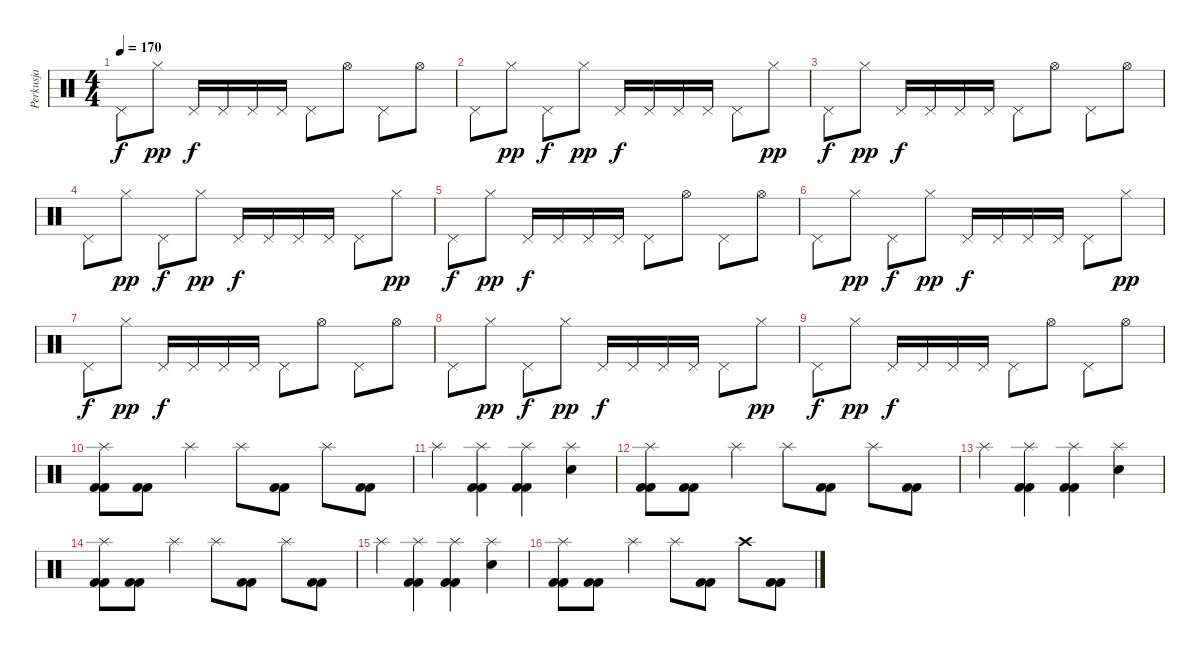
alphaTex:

\track ("Perkusja" "Perkusja") {instrument percussion}
\staff {score}
\articulation defaults
\ts (4 4)
\tempo 170
\clef neutral
\ks c "Pedal Hi-Hat (hit)".8{dy f} "Hi-Hat (closed)".8{dy pp} "Pedal Hi-Hat (hit)".16{dy f} "Pedal Hi-Hat (hit)".16 "Pedal Hi-Hat (hit)".16 "Pedal Hi-Hat (hit)".16 "Pedal Hi-Hat (hit)".8 "Hi-Hat (open)".8 "Pedal Hi-Hat (hit)".8 "Hi-Hat (open)".8
|
"Pedal Hi-Hat (hit)".8 "Hi-Hat (closed)".8{dy pp} "Pedal Hi-Hat (hit)".8{dy f} "Hi-Hat (closed)".8{dy pp} "Pedal Hi-Hat (hit)".16{dy f} "Pedal Hi-Hat (hit)".16 "Pedal Hi-Hat (hit)".16 "Pedal Hi-Hat (hit)".16 "Pedal Hi-Hat (hit)".8 "Hi-Hat (closed)".8{dy pp} |
"Pedal Hi-Hat (hit)".8{dy f} "Hi-Hat (closed)".8{dy pp} "Pedal Hi-Hat (hit)".16{dy f} "Pedal Hi-Hat (hit)".16 "Pedal Hi-Hat (hit)".16 "Pedal Hi-Hat (hit)".16 "Pedal Hi-Hat (hit)".8 "Hi-Hat (open)".8 "Pedal Hi-Hat (hit)".8 "Hi-Hat (open)".8 |
"Pedal Hi-Hat (hit)".8 "Hi-Hat (closed)".8{dy pp} "Pedal Hi-Hat (hit)".8{dy f} "Hi-Hat (closed)".8{dy pp} "Pedal Hi-Hat (hit)".16{dy f} "Pedal Hi-Hat (hit)".16 "Pedal Hi-Hat (hit)".16 "Pedal Hi-Hat (hit)".16 "Pedal Hi-Hat (hit)".8 "Hi-Hat (closed)".8{dy pp} |
"Pedal Hi-Hat (hit)".8{dy f} "Hi-Hat (closed)".8{dy pp} "Pedal Hi-Hat (hit)".16{dy f} "Pedal Hi-Hat (hit)".16 "Pedal Hi-Hat (hit)".16 "Pedal Hi-Hat (hit)".16 "Pedal Hi-Hat (hit)".8 "Hi-Hat (open)".8 "Pedal Hi-Hat (hit)".8 "Hi-Hat (open)".8 |
"Pedal Hi-Hat (hit)".8 "Hi-Hat (closed)".8{dy pp} "Pedal Hi-Hat (hit)".8{dy f} "Hi-Hat (closed)".8{dy pp} "Pedal Hi-Hat (hit)".16{dy f} "Pedal Hi-Hat (hit)".16 "Pedal Hi-Hat (hit)".16 "Pedal Hi-Hat (hit)".16 "Pedal Hi-Hat (hit)".8 "Hi-Hat (closed)".8{dy pp} |
"Pedal Hi-Hat (hit)".8{dy f} "Hi-Hat (closed)".8{dy pp} "Pedal Hi-Hat (hit)".16{dy f} "Pedal Hi-Hat (hit)".16 "Pedal Hi-Hat (hit)".16 "Pedal Hi-Hat (hit)".16 "Pedal Hi-Hat (hit)".8 "Hi-Hat (open)".8 "Pedal Hi-Hat (hit)".8 "Hi-Hat (open)".8 |
"Pedal Hi-Hat (hit)".8 "Hi-Hat (closed)".8{dy pp} "Pedal Hi-Hat (hit)".8{dy f} "Hi-Hat (closed)".8{dy pp} "Pedal Hi-Hat (hit)".16{dy f} "Pedal Hi-Hat (hit)".16 "Pedal Hi-Hat (hit)".16 "Pedal Hi-Hat (hit)".16 "Pedal Hi-Hat (hit)".8 "Hi-Hat (closed)".8{dy pp} |
"Pedal Hi-Hat (hit)".8{dy f} "Hi-Hat (closed)".8{dy pp} "Pedal Hi-Hat (hit)".16{dy f} "Pedal Hi-Hat (hit)".16 "Pedal Hi-Hat (hit)".16 "Pedal Hi-Hat (hit)".16 "Pedal Hi-Hat (hit)".8 "Hi-Hat (open)".8 "Pedal Hi-Hat (hit)".8 "Hi-Hat (open)".8 |
("Splash (hit)" "Kick (hit) 2" "Kick (hit) 2").8 ("Kick (hit) 2" "Kick (hit) 2").8 "Splash (hit)".4 "Splash (hit)".8 ("Kick (hit) 2" "Kick (hit) 2").8 "Splash (hit)".8 ("Kick (hit) 2" "Kick (hit) 2").8 |
"Splash (hit)".4 ("Splash (hit)" "Kick (hit) 2" "Kick (hit) 2").4 ("Splash (hit)" "Kick (hit) 2" "Kick (hit) 2").4 ("Splash (hit)" "Electric Snare (hit)").4 |
("Splash (hit)" "Kick (hit) 2" "Kick (hit) 2").8 ("Kick (hit) 2" "Kick (hit) 2").8 "Splash (hit)".4 "Splash (hit)".8 ("Kick (hit) 2" "Kick (hit) 2").8 "Splash (hit)".8 ("Kick (hit) 2" "Kick (hit) 2").8 |
"Splash (hit)".4 ("Splash (hit)" "Kick (hit) 2" "Kick (hit) 2").4 ("Splash (hit)" "Kick (hit) 2" "Kick (hit) 2").4 ("Splash (hit)" "Electric Snare (hit)").4 |
("Splash (hit)" "Kick (hit) 2" "Kick (hit) 2").8 ("Kick (hit) 2" "Kick (hit) 2").8 "Splash (hit)".4 "Splash (hit)".8 ("Kick (hit) 2" "Kick (hit) 2").8 "Splash (hit)".8 ("Kick (hit) 2" "Kick (hit) 2").8 |
"Splash (hit)".4 ("Splash (hit)" "Kick (hit) 2" "Kick (hit) 2").4 ("Splash (hit)" "Kick (hit) 2" "Kick (hit) 2").4 ("Splash (hit)" "Electric Snare (hit)").4 |
("Splash (hit)" "Kick (hit) 2" "Kick (hit) 2").8 ("Kick (hit) 2" "Kick (hit) 2").8 "Splash (hit)".4 "Splash (hit)".8 ("Kick (hit) 2" "Kick (hit) 2").8 "Crash high (hit)".8 ("Kick (hit) 2" "Kick (hit) 2").8
